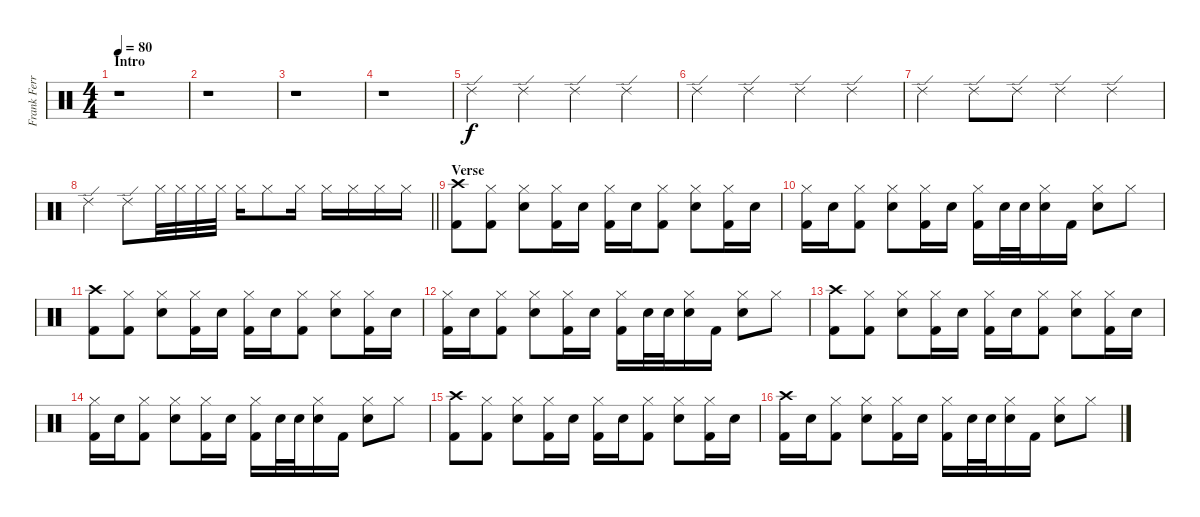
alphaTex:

\track ("Frank Ferrer" "Frank Ferr") {instrument percussion}
\staff {score}
\articulation defaults
\ts (4 4)
\section ("" "Intro")
\tempo 80
\clef neutral
\ks c
r.1{dy f} |
r.1 |
r.1 |
r.1 |
"Ride (edge) 2".4 "Ride (edge) 2".4 "Ride (edge) 2".4 "Ride (edge) 2".4 |
"Ride (edge) 2".4 "Ride (edge) 2".4 "Ride (edge) 2".4 "Ride (edge) 2".4 |
"Ride (edge) 2".4 "Ride (edge) 2".8 "Ride (edge) 2".8 "Ride (edge) 2".4 "Ride (edge) 2".4 |
\barLineRight lightlight "Ride (edge) 2".4 "Ride (edge) 2".8 "Hi-Hat (closed)".32 "Hi-Hat (closed)".32 "Hi-Hat (closed)".32 "Hi-Hat (closed)".32 "Hi-Hat (closed)".16 "Hi-Hat (closed)".8 "Hi-Hat (closed)".16 "Hi-Hat (closed)".16 "Hi-Hat (closed)".16 "Hi-Hat (closed)".16 "Hi-Hat (closed)".16
|
\section ("" "Verse")
("Crash high (hit)" "Kick (hit) 2").8 ("Hi-Hat (closed)" "Kick (hit) 2").8 ("Hi-Hat (closed)" "Snare (hit) 2").8 ("Hi-Hat (closed)" "Kick (hit) 2").16 "Snare (hit) 2".16 ("Hi-Hat (closed)" "Kick (hit) 2").16 "Snare (hit) 2".16 ("Hi-Hat (closed)" "Kick (hit) 2").8 ("Hi-Hat (closed)" "Snare (hit) 2").8 ("Hi-Hat (closed)" "Kick (hit) 2").16 "Snare (hit) 2".16 |
("Hi-Hat (closed)" "Kick (hit) 2").16 "Snare (hit) 2".16 ("Hi-Hat (closed)" "Kick (hit) 2").8 ("Hi-Hat (closed)" "Snare (hit) 2").8 ("Hi-Hat (closed)" "Kick (hit) 2").16 "Snare (hit) 2".16 ("Hi-Hat (closed)" "Kick (hit) 2").16 "Snare (hit) 2".32 "Snare (hit) 2".32 ("Hi-Hat (closed)" "Snare (hit) 2").16 "Kick (hit) 2".16 ("Hi-Hat (closed)" "Snare (hit) 2").8 "Hi-Hat (closed)".8 |
("Crash high (hit)" "Kick (hit) 2").8 ("Hi-Hat (closed)" "Kick (hit) 2").8 ("Hi-Hat (closed)" "Snare (hit) 2").8 ("Hi-Hat (closed)" "Kick (hit) 2").16 "Snare (hit) 2".16 ("Hi-Hat (closed)" "Kick (hit) 2").16 "Snare (hit) 2".16 ("Hi-Hat (closed)" "Kick (hit) 2").8 ("Hi-Hat (closed)" "Snare (hit) 2").8 ("Hi-Hat (closed)" "Kick (hit) 2").16 "Snare (hit) 2".16 |
("Hi-Hat (closed)" "Kick (hit) 2").16 "Snare (hit) 2".16 ("Hi-Hat (closed)" "Kick (hit) 2").8 ("Hi-Hat (closed)" "Snare (hit) 2").8 ("Hi-Hat (closed)" "Kick (hit) 2").16 "Snare (hit) 2".16 ("Hi-Hat (closed)" "Kick (hit) 2").16 "Snare (hit) 2".32 "Snare (hit) 2".32 ("Hi-Hat (closed)" "Snare (hit) 2").16 "Kick (hit) 2".16 ("Hi-Hat (closed)" "Snare (hit) 2").8 "Hi-Hat (closed)".8 |
("Crash high (hit)" "Kick (hit) 2").8 ("Hi-Hat (closed)" "Kick (hit) 2").8 ("Hi-Hat (closed)" "Snare (hit) 2").8 ("Hi-Hat (closed)" "Kick (hit) 2").16 "Snare (hit) 2".16 ("Hi-Hat (closed)" "Kick (hit) 2").16 "Snare (hit) 2".16 ("Hi-Hat (closed)" "Kick (hit) 2").8 ("Hi-Hat (closed)" "Snare (hit) 2").8 ("Hi-Hat (closed)" "Kick (hit) 2").16 "Snare (hit) 2".16 |
("Hi-Hat (closed)" "Kick (hit) 2").16 "Snare (hit) 2".16 ("Hi-Hat (closed)" "Kick (hit) 2").8 ("Hi-Hat (closed)" "Snare (hit) 2").8 ("Hi-Hat (closed)" "Kick (hit) 2").16 "Snare (hit) 2".16 ("Hi-Hat (closed)" "Kick (hit) 2").16 "Snare (hit) 2".32 "Snare (hit) 2".32 ("Hi-Hat (closed)" "Snare (hit) 2").16 "Kick (hit) 2".16 ("Hi-Hat (closed)" "Snare (hit) 2").8 "Hi-Hat (closed)".8 |
("Crash high (hit)" "Kick (hit) 2").8 ("Hi-Hat (closed)" "Kick (hit) 2").8 ("Hi-Hat (closed)" "Snare (hit) 2").8 ("Hi-Hat (closed)" "Kick (hit) 2").16 "Snare (hit) 2".16 ("Hi-Hat (closed)" "Kick (hit) 2").16 "Snare (hit) 2".16 ("Hi-Hat (closed)" "Kick (hit) 2").8 ("Hi-Hat (closed)" "Snare (hit) 2").8 ("Hi-Hat (closed)" "Kick (hit) 2").16 "Snare (hit) 2".16 |
("Crash high (hit)" "Kick (hit) 2").16 "Snare (hit) 2".16 ("Hi-Hat (closed)" "Kick (hit) 2").8 ("Hi-Hat (closed)" "Snare (hit) 2").8 ("Hi-Hat (closed)" "Kick (hit) 2").16 "Snare (hit) 2".16 ("Hi-Hat (closed)" "Kick (hit) 2").16 "Snare (hit) 2".32 "Snare (hit) 2".32 ("Hi-Hat (closed)" "Snare (hit) 2").16 "Kick (hit) 2".16 ("Hi-Hat (closed)" "Snare (hit) 2").8 "Hi-Hat (closed)".8
